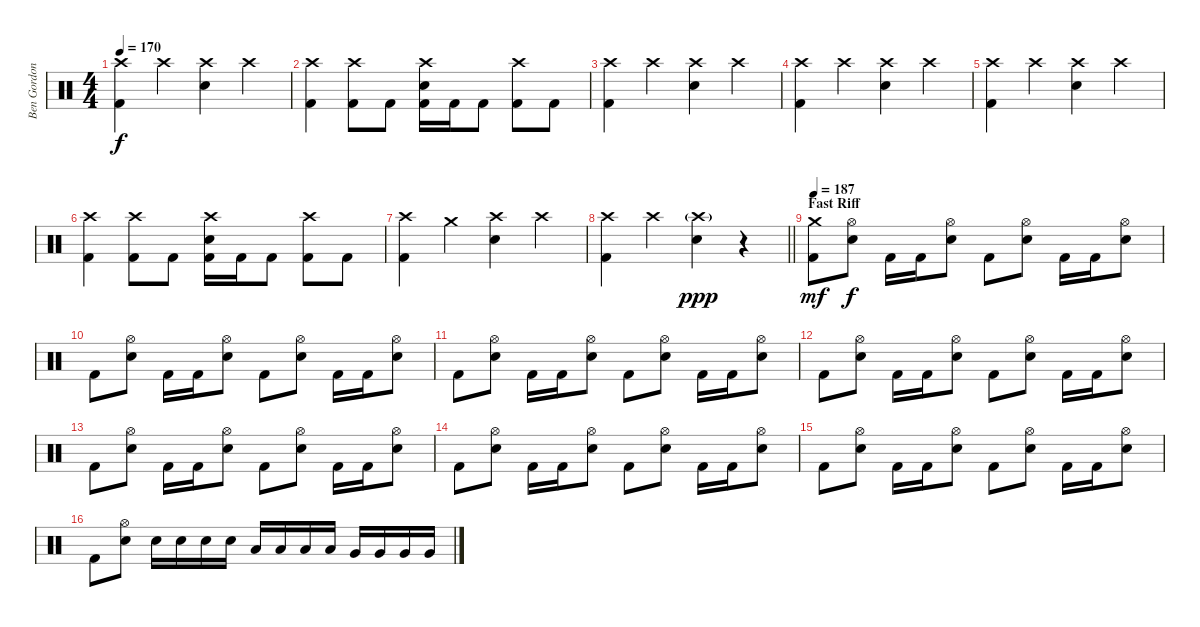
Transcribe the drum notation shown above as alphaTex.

\track ("Ben Gordon" "Ben Gordon") {instrument percussion}
\staff {score}
\articulation defaults
\ts (4 4)
\tempo 170
\clef neutral
\ks c
("Crash high (hit)" "Kick (hit) 2").4{dy f} "Crash high (hit)".4 ("Crash high (hit)" "Electric Snare (hit)").4 "Crash high (hit)".4 |
("Crash high (hit)" "Kick (hit) 2").4 ("Crash high (hit)" "Kick (hit) 2").8 "Kick (hit) 2".8 ("Crash high (hit)" "Electric Snare (hit)" "Kick (hit) 2").16 "Kick (hit) 2".16 "Kick (hit) 2".8 ("Crash high (hit)" "Kick (hit) 2").8 "Kick (hit) 2".8 |
("Crash high (hit)" "Kick (hit) 2").4 "Crash high (hit)".4 ("Crash high (hit)" "Electric Snare (hit)").4 "Crash high (hit)".4 |
("Crash high (hit)" "Kick (hit) 2").4 "Crash high (hit)".4 ("Crash high (hit)" "Electric Snare (hit)").4 "Crash high (hit)".4 |
("Crash high (hit)" "Kick (hit) 2").4 "Crash high (hit)".4 ("Crash high (hit)" "Electric Snare (hit)").4 "Crash high (hit)".4 |
("Crash high (hit)" "Kick (hit) 2").4 ("Crash high (hit)" "Kick (hit) 2").8 "Kick (hit) 2".8 ("Crash high (hit)" "Electric Snare (hit)" "Kick (hit) 2").16 "Kick (hit) 2".16 "Kick (hit) 2".8 ("Crash high (hit)" "Kick (hit) 2").8 "Kick (hit) 2".8 |
("Crash high (hit)" "Kick (hit) 2").4 "Crash medium (hit)".4 ("Crash high (hit)" "Electric Snare (hit)").4 "Crash high (hit)".4 |
\barLineRight lightlight
("Crash high (hit)" "Kick (hit) 2").4 "Crash high (hit)".4 ("Crash high (hit)"{g} "Electric Snare (hit)").4{dy ppp} r.4 |
\section ("" "Fast Riff")
\tempo 187
("Crash medium (hit)" "Kick (hit) 2").8{dy mf} ("Hi-Hat (open)" "Electric Snare (hit)").8{dy f} "Kick (hit) 2".16 "Kick (hit) 2".16 ("Hi-Hat (open)" "Electric Snare (hit)").8 "Kick (hit) 2".8 ("Hi-Hat (open)" "Electric Snare (hit)").8 "Kick (hit) 2".16 "Kick (hit) 2".16 ("Hi-Hat (open)" "Electric Snare (hit)").8 |
"Kick (hit) 2".8 ("Hi-Hat (open)" "Electric Snare (hit)").8 "Kick (hit) 2".16 "Kick (hit) 2".16 ("Hi-Hat (open)" "Electric Snare (hit)").8 "Kick (hit) 2".8 ("Hi-Hat (open)" "Electric Snare (hit)").8 "Kick (hit) 2".16 "Kick (hit) 2".16 ("Hi-Hat (open)" "Electric Snare (hit)").8 |
"Kick (hit) 2".8 ("Hi-Hat (open)" "Electric Snare (hit)").8 "Kick (hit) 2".16 "Kick (hit) 2".16 ("Hi-Hat (open)" "Electric Snare (hit)").8 "Kick (hit) 2".8 ("Hi-Hat (open)" "Electric Snare (hit)").8 "Kick (hit) 2".16 "Kick (hit) 2".16 ("Hi-Hat (open)" "Electric Snare (hit)").8 |
"Kick (hit) 2".8 ("Hi-Hat (open)" "Electric Snare (hit)").8 "Kick (hit) 2".16 "Kick (hit) 2".16 ("Hi-Hat (open)" "Electric Snare (hit)").8 "Kick (hit) 2".8 ("Hi-Hat (open)" "Electric Snare (hit)").8 "Kick (hit) 2".16 "Kick (hit) 2".16 ("Hi-Hat (open)" "Electric Snare (hit)").8 |
"Kick (hit) 2".8 ("Hi-Hat (open)" "Electric Snare (hit)").8 "Kick (hit) 2".16 "Kick (hit) 2".16 ("Hi-Hat (open)" "Electric Snare (hit)").8 "Kick (hit) 2".8 ("Hi-Hat (open)" "Electric Snare (hit)").8 "Kick (hit) 2".16 "Kick (hit) 2".16 ("Hi-Hat (open)" "Electric Snare (hit)").8 |
"Kick (hit) 2".8 ("Hi-Hat (open)" "Electric Snare (hit)").8 "Kick (hit) 2".16 "Kick (hit) 2".16 ("Hi-Hat (open)" "Electric Snare (hit)").8 "Kick (hit) 2".8 ("Hi-Hat (open)" "Electric Snare (hit)").8 "Kick (hit) 2".16 "Kick (hit) 2".16 ("Hi-Hat (open)" "Electric Snare (hit)").8 |
"Kick (hit) 2".8 ("Hi-Hat (open)" "Electric Snare (hit)").8 "Kick (hit) 2".16 "Kick (hit) 2".16 ("Hi-Hat (open)" "Electric Snare (hit)").8 "Kick (hit) 2".8 ("Hi-Hat (open)" "Electric Snare (hit)").8 "Kick (hit) 2".16 "Kick (hit) 2".16 ("Hi-Hat (open)" "Electric Snare (hit)").8 |
"Kick (hit) 2".8 ("Hi-Hat (open)" "Electric Snare (hit)").8 "Electric Snare (hit)".16 "Electric Snare (hit)".16 "Electric Snare (hit)".16 "Electric Snare (hit)".16 "Low Tom (hit)".16 "Low Tom (hit)".16 "Low Tom (hit)".16 "Low Tom (hit)".16 "Very Low Tom (hit)".16 "Very Low Tom (hit)".16 "Very Low Tom (hit)".16 "Very Low Tom (hit)".16
